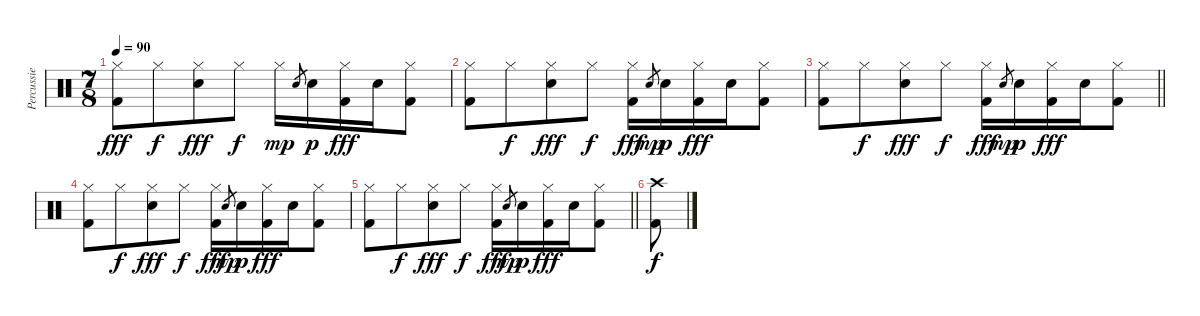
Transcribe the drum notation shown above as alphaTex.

\track ("Percussie" "Percussie") {instrument percussion}
\staff {score}
\articulation defaults
\ts (7 8)
\tempo 90
\clef neutral
\ks c
("Hi-Hat (closed)" "Kick (hit) 2").8{dy fff} "Hi-Hat (closed)".8{dy f} ("Hi-Hat (closed)" "Snare (hit) 2").8{dy fff} "Hi-Hat (closed)".8{dy f} "Hi-Hat (closed)".16{dy mp} "Snare (hit) 2".8{gr} "Snare (hit) 2".16{dy p} ("Hi-Hat (closed)" "Kick (hit) 2").16{dy fff} "Snare (hit) 2".16 ("Hi-Hat (closed)" "Kick (hit) 2").8 |
("Hi-Hat (closed)" "Kick (hit) 2").8 "Hi-Hat (closed)".8{dy f} ("Hi-Hat (closed)" "Snare (hit) 2").8{dy fff} "Hi-Hat (closed)".8{dy f} ("Hi-Hat (closed)" "Kick (hit) 2").16{dy fff} "Snare (hit) 2".8{gr dy mp} "Snare (hit) 2".16{dy p} ("Hi-Hat (closed)" "Kick (hit) 2").16{dy fff} "Snare (hit) 2".16 ("Hi-Hat (closed)" "Kick (hit) 2").8 |
\barLineRight lightlight
("Hi-Hat (closed)" "Kick (hit) 2").8 "Hi-Hat (closed)".8{dy f} ("Hi-Hat (closed)" "Snare (hit) 2").8{dy fff} "Hi-Hat (closed)".8{dy f} ("Hi-Hat (closed)" "Kick (hit) 2").16{dy fff} "Snare (hit) 2".8{gr dy mp} "Snare (hit) 2".16{dy p} ("Hi-Hat (closed)" "Kick (hit) 2").16{dy fff} "Snare (hit) 2".16 ("Hi-Hat (closed)" "Kick (hit) 2").8 |
("Hi-Hat (closed)" "Kick (hit) 2").8 "Hi-Hat (closed)".8{dy f} ("Hi-Hat (closed)" "Snare (hit) 2").8{dy fff} "Hi-Hat (closed)".8{dy f} ("Hi-Hat (closed)" "Kick (hit) 2").16{dy fff} "Snare (hit) 2".8{gr dy mp} "Snare (hit) 2".16{dy p} ("Hi-Hat (closed)" "Kick (hit) 2").16{dy fff} "Snare (hit) 2".16 ("Hi-Hat (closed)" "Kick (hit) 2").8 |
\barLineRight lightlight
("Hi-Hat (closed)" "Kick (hit) 2").8 "Hi-Hat (closed)".8{dy f} ("Hi-Hat (closed)" "Snare (hit) 2").8{dy fff} "Hi-Hat (closed)".8{dy f} ("Hi-Hat (closed)" "Kick (hit) 2").16{dy fff} "Snare (hit) 2".8{gr dy mp} "Snare (hit) 2".16{dy p} ("Hi-Hat (closed)" "Kick (hit) 2").16{dy fff} "Snare (hit) 2".16 ("Hi-Hat (closed)" "Kick (hit) 2").8 |
("Crash high (hit)" "Kick (hit) 2").8{dy f}
